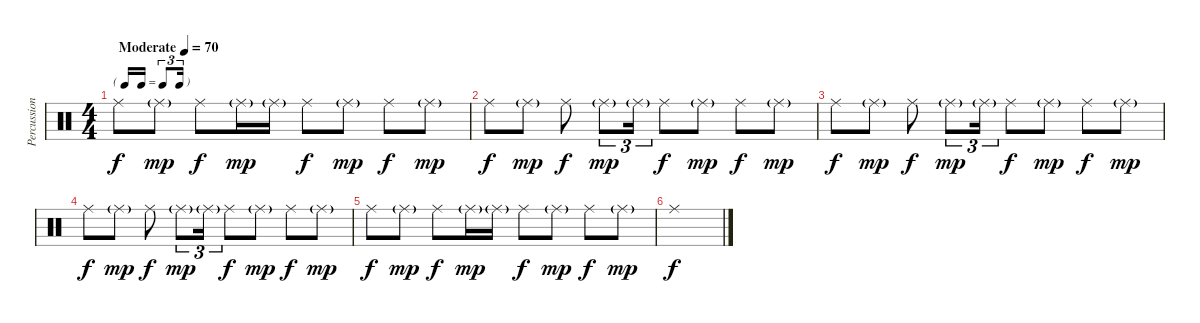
\track ("Percussion" "Percussion") {instrument percussion}
\staff {score}
\articulation defaults
\ts (4 4)
\tf triplet16th
\tempo (70 "Moderate")
\clef neutral
\ks c "Ride (middle)".8{dy f} "Ride (middle)"{g}.8{dy mp} "Ride (middle)".8{dy f} "Ride (middle)"{g}.16{dy mp} "Ride (middle)"{g}.16 "Ride (middle)".8{dy f} "Ride (middle)"{g}.8{dy mp} "Ride (middle)".8{dy f} "Ride (middle)"{g}.8{dy mp}
|
"Ride (middle)".8{dy f} "Ride (middle)"{g}.8{dy mp} "Ride (middle)".8{dy f} "Ride (middle)"{g}.8{tu (3 2) dy mp} "Ride (middle)"{g}.16{tu (3 2)} "Ride (middle)".8{dy f} "Ride (middle)"{g}.8{dy mp} "Ride (middle)".8{dy f} "Ride (middle)"{g}.8{dy mp} |
"Ride (middle)".8{dy f} "Ride (middle)"{g}.8{dy mp} "Ride (middle)".8{dy f} "Ride (middle)"{g}.8{tu (3 2) dy mp} "Ride (middle)"{g}.16{tu (3 2)} "Ride (middle)".8{dy f} "Ride (middle)"{g}.8{dy mp} "Ride (middle)".8{dy f} "Ride (middle)"{g}.8{dy mp} |
"Ride (middle)".8{dy f} "Ride (middle)"{g}.8{dy mp} "Ride (middle)".8{dy f} "Ride (middle)"{g}.8{tu (3 2) dy mp} "Ride (middle)"{g}.16{tu (3 2)} "Ride (middle)".8{dy f} "Ride (middle)"{g}.8{dy mp} "Ride (middle)".8{dy f} "Ride (middle)"{g}.8{dy mp} |
"Ride (middle)".8{dy f} "Ride (middle)"{g}.8{dy mp} "Ride (middle)".8{dy f} "Ride (middle)"{g}.16{dy mp} "Ride (middle)"{g}.16 "Ride (middle)".8{dy f} "Ride (middle)"{g}.8{dy mp} "Ride (middle)".8{dy f} "Ride (middle)"{g}.8{dy mp} |
"Ride (middle)".1{dy f}
